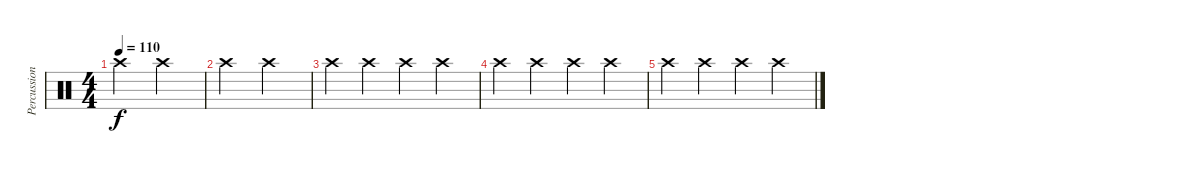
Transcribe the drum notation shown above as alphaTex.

\track ("Percussions" "Percussion") {instrument percussion}
\staff {score}
\articulation defaults
\ts (4 4)
\tempo 110
\clef neutral
\ks c "Crash high (hit)".2{dy f} "Crash high (hit)".2
|
"Crash high (hit)".2 "Crash high (hit)".2 |
"Crash high (hit)".4 "Crash high (hit)".4 "Crash high (hit)".4 "Crash high (hit)".4 |
"Crash high (hit)".4 "Crash high (hit)".4 "Crash high (hit)".4 "Crash high (hit)".4 |
"Crash high (hit)".4 "Crash high (hit)".4 "Crash high (hit)".4 "Crash high (hit)".4
